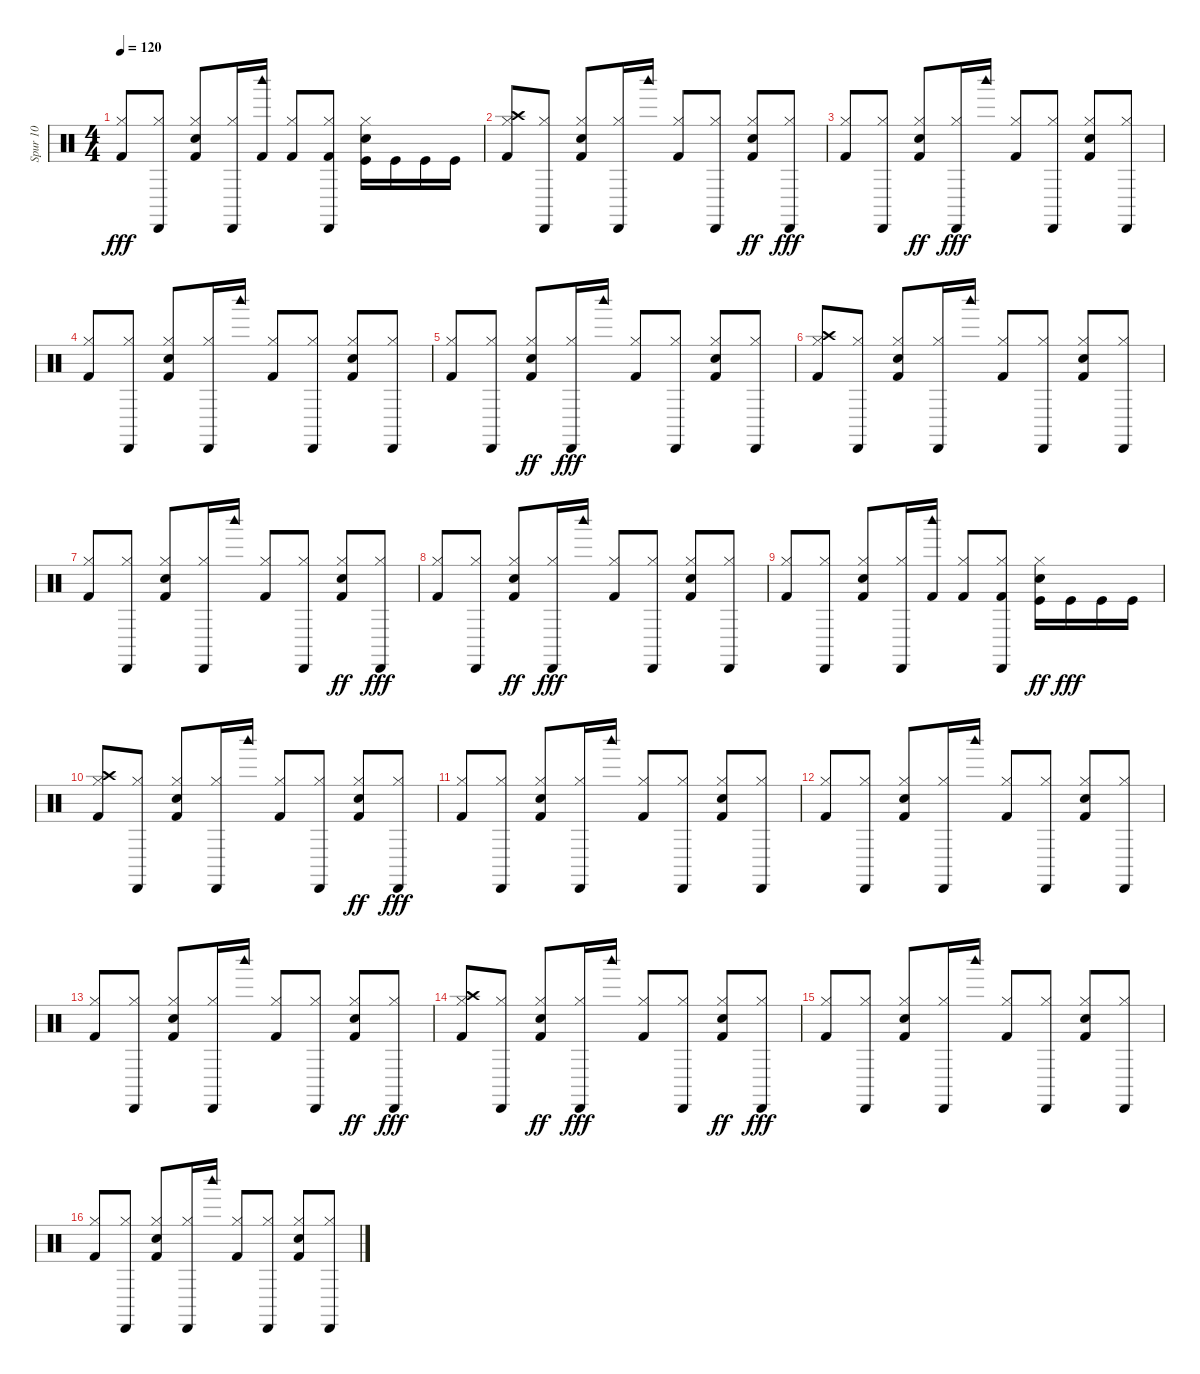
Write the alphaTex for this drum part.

\track ("Spur 10" "Spur 10") {instrument percussion}
\staff {score}
\articulation defaults
\ts (4 4)
\tempo 120
\clef neutral
\ks c
("Hi-Hat (closed)" "Kick (hit) 2").8{dy fff} ("Cabasa (hit)" "Hi-Hat (closed)").8 ("Hand Clap (hit)" "Kick (hit) 2" "Hi-Hat (closed)").8 ("Cabasa (hit)" "Hi-Hat (closed)").16 ("Kick (hit) 2" "Woodblock high (hit)").16 ("Hi-Hat (closed)" "Kick (hit) 2").8 ("Kick (hit) 2" "Cabasa (hit)" "Hi-Hat (closed)").8 ("Hand Clap (hit)" "Kick (hit)" "Hi-Hat (closed)").16 "Kick (hit)".16 "Kick (hit)".16 "Kick (hit)".16 |
("Crash high (hit)" "Hi-Hat (closed)" "Kick (hit) 2").8 ("Cabasa (hit)" "Hi-Hat (closed)").8 ("Hi-Hat (closed)" "Hand Clap (hit)" "Kick (hit) 2").8 ("Hi-Hat (closed)" "Cabasa (hit)").16 "Woodblock high (hit)".16 ("Hi-Hat (closed)" "Kick (hit) 2").8 ("Hi-Hat (closed)" "Cabasa (hit)").8 ("Kick (hit) 2" "Hi-Hat (closed)" "Hand Clap (hit)").8{dy ff} ("Hi-Hat (closed)" "Cabasa (hit)").8{dy fff} |
("Kick (hit) 2" "Hi-Hat (closed)").8 ("Cabasa (hit)" "Hi-Hat (closed)").8 ("Hi-Hat (closed)" "Kick (hit) 2" "Hand Clap (hit)").8{dy ff} ("Hi-Hat (closed)" "Cabasa (hit)").16{dy fff} "Woodblock high (hit)".16 ("Kick (hit) 2" "Hi-Hat (closed)").8 ("Hi-Hat (closed)" "Cabasa (hit)").8 ("Hand Clap (hit)" "Kick (hit) 2" "Hi-Hat (closed)").8 ("Hi-Hat (closed)" "Cabasa (hit)").8 |
("Hi-Hat (closed)" "Kick (hit) 2").8 ("Cabasa (hit)" "Hi-Hat (closed)").8 ("Kick (hit) 2" "Hand Clap (hit)" "Hi-Hat (closed)").8 ("Cabasa (hit)" "Hi-Hat (closed)").16 "Woodblock high (hit)".16 ("Hi-Hat (closed)" "Kick (hit) 2").8 ("Cabasa (hit)" "Hi-Hat (closed)").8 ("Kick (hit) 2" "Hand Clap (hit)" "Hi-Hat (closed)").8 ("Hi-Hat (closed)" "Cabasa (hit)").8 |
("Hi-Hat (closed)" "Kick (hit) 2").8 ("Cabasa (hit)" "Hi-Hat (closed)").8 ("Kick (hit) 2" "Hi-Hat (closed)" "Hand Clap (hit)").8{dy ff} ("Hi-Hat (closed)" "Cabasa (hit)").16{dy fff} "Woodblock high (hit)".16 ("Hi-Hat (closed)" "Kick (hit) 2").8 ("Hi-Hat (closed)" "Cabasa (hit)").8 ("Hand Clap (hit)" "Hi-Hat (closed)" "Kick (hit) 2").8 ("Hi-Hat (closed)" "Cabasa (hit)").8 |
("Crash high (hit)" "Kick (hit) 2" "Hi-Hat (closed)").8 ("Hi-Hat (closed)" "Cabasa (hit)").8 ("Hand Clap (hit)" "Kick (hit) 2" "Hi-Hat (closed)").8 ("Cabasa (hit)" "Hi-Hat (closed)").16 "Woodblock high (hit)".16 ("Hi-Hat (closed)" "Kick (hit) 2").8 ("Cabasa (hit)" "Hi-Hat (closed)").8 ("Hand Clap (hit)" "Kick (hit) 2" "Hi-Hat (closed)").8 ("Cabasa (hit)" "Hi-Hat (closed)").8 |
("Hi-Hat (closed)" "Kick (hit) 2").8 ("Hi-Hat (closed)" "Cabasa (hit)").8 ("Hand Clap (hit)" "Hi-Hat (closed)" "Kick (hit) 2").8 ("Hi-Hat (closed)" "Cabasa (hit)").16 "Woodblock high (hit)".16 ("Hi-Hat (closed)" "Kick (hit) 2").8 ("Hi-Hat (closed)" "Cabasa (hit)").8 ("Hi-Hat (closed)" "Kick (hit) 2" "Hand Clap (hit)").8{dy ff} ("Cabasa (hit)" "Hi-Hat (closed)").8{dy fff} |
("Kick (hit) 2" "Hi-Hat (closed)").8 ("Cabasa (hit)" "Hi-Hat (closed)").8 ("Kick (hit) 2" "Hi-Hat (closed)" "Hand Clap (hit)").8{dy ff} ("Hi-Hat (closed)" "Cabasa (hit)").16{dy fff} "Woodblock high (hit)".16 ("Hi-Hat (closed)" "Kick (hit) 2").8 ("Hi-Hat (closed)" "Cabasa (hit)").8 ("Hi-Hat (closed)" "Hand Clap (hit)" "Kick (hit) 2").8 ("Hi-Hat (closed)" "Cabasa (hit)").8 |
("Kick (hit) 2" "Hi-Hat (closed)").8 ("Cabasa (hit)" "Hi-Hat (closed)").8 ("Hand Clap (hit)" "Kick (hit) 2" "Hi-Hat (closed)").8 ("Cabasa (hit)" "Hi-Hat (closed)").16 ("Kick (hit) 2" "Woodblock high (hit)").16 ("Hi-Hat (closed)" "Kick (hit) 2").8 ("Kick (hit) 2" "Hi-Hat (closed)" "Cabasa (hit)").8 ("Hi-Hat (closed)" "Kick (hit)" "Hand Clap (hit)").16{dy ff} "Kick (hit)".16{dy fff} "Kick (hit)".16 "Kick (hit)".16 |
("Hi-Hat (closed)" "Kick (hit) 2" "Crash high (hit)").8 ("Hi-Hat (closed)" "Cabasa (hit)").8 ("Hand Clap (hit)" "Hi-Hat (closed)" "Kick (hit) 2").8 ("Hi-Hat (closed)" "Cabasa (hit)").16 "Woodblock high (hit)".16 ("Kick (hit) 2" "Hi-Hat (closed)").8 ("Cabasa (hit)" "Hi-Hat (closed)").8 ("Hi-Hat (closed)" "Kick (hit) 2" "Hand Clap (hit)").8{dy ff} ("Hi-Hat (closed)" "Cabasa (hit)").8{dy fff} |
("Kick (hit) 2" "Hi-Hat (closed)").8 ("Hi-Hat (closed)" "Cabasa (hit)").8 ("Hand Clap (hit)" "Hi-Hat (closed)" "Kick (hit) 2").8 ("Hi-Hat (closed)" "Cabasa (hit)").16 "Woodblock high (hit)".16 ("Kick (hit) 2" "Hi-Hat (closed)").8 ("Hi-Hat (closed)" "Cabasa (hit)").8 ("Hand Clap (hit)" "Kick (hit) 2" "Hi-Hat (closed)").8 ("Hi-Hat (closed)" "Cabasa (hit)").8 |
("Hi-Hat (closed)" "Kick (hit) 2").8 ("Hi-Hat (closed)" "Cabasa (hit)").8 ("Hand Clap (hit)" "Hi-Hat (closed)" "Kick (hit) 2").8 ("Cabasa (hit)" "Hi-Hat (closed)").16 "Woodblock high (hit)".16 ("Hi-Hat (closed)" "Kick (hit) 2").8 ("Cabasa (hit)" "Hi-Hat (closed)").8 ("Hi-Hat (closed)" "Hand Clap (hit)" "Kick (hit) 2").8 ("Cabasa (hit)" "Hi-Hat (closed)").8 |
("Kick (hit) 2" "Hi-Hat (closed)").8 ("Hi-Hat (closed)" "Cabasa (hit)").8 ("Kick (hit) 2" "Hand Clap (hit)" "Hi-Hat (closed)").8 ("Cabasa (hit)" "Hi-Hat (closed)").16 "Woodblock high (hit)".16 ("Hi-Hat (closed)" "Kick (hit) 2").8 ("Cabasa (hit)" "Hi-Hat (closed)").8 ("Kick (hit) 2" "Hi-Hat (closed)" "Hand Clap (hit)").8{dy ff} ("Cabasa (hit)" "Hi-Hat (closed)").8{dy fff} |
("Hi-Hat (closed)" "Crash high (hit)" "Kick (hit) 2").8 ("Hi-Hat (closed)" "Cabasa (hit)").8 ("Kick (hit) 2" "Hi-Hat (closed)" "Hand Clap (hit)").8{dy ff} ("Hi-Hat (closed)" "Cabasa (hit)").16{dy fff} "Woodblock high (hit)".16 ("Hi-Hat (closed)" "Kick (hit) 2").8 ("Hi-Hat (closed)" "Cabasa (hit)").8 ("Hi-Hat (closed)" "Kick (hit) 2" "Hand Clap (hit)").8{dy ff} ("Cabasa (hit)" "Hi-Hat (closed)").8{dy fff} |
("Kick (hit) 2" "Hi-Hat (closed)").8 ("Cabasa (hit)" "Hi-Hat (closed)").8 ("Kick (hit) 2" "Hand Clap (hit)" "Hi-Hat (closed)").8 ("Hi-Hat (closed)" "Cabasa (hit)").16 "Woodblock high (hit)".16 ("Hi-Hat (closed)" "Kick (hit) 2").8 ("Hi-Hat (closed)" "Cabasa (hit)").8 ("Hand Clap (hit)" "Hi-Hat (closed)" "Kick (hit) 2").8 ("Hi-Hat (closed)" "Cabasa (hit)").8 |
("Kick (hit) 2" "Hi-Hat (closed)").8 ("Cabasa (hit)" "Hi-Hat (closed)").8 ("Kick (hit) 2" "Hand Clap (hit)" "Hi-Hat (closed)").8 ("Hi-Hat (closed)" "Cabasa (hit)").16 "Woodblock high (hit)".16 ("Hi-Hat (closed)" "Kick (hit) 2").8 ("Hi-Hat (closed)" "Cabasa (hit)").8 ("Kick (hit) 2" "Hand Clap (hit)" "Hi-Hat (closed)").8 ("Hi-Hat (closed)" "Cabasa (hit)").8
